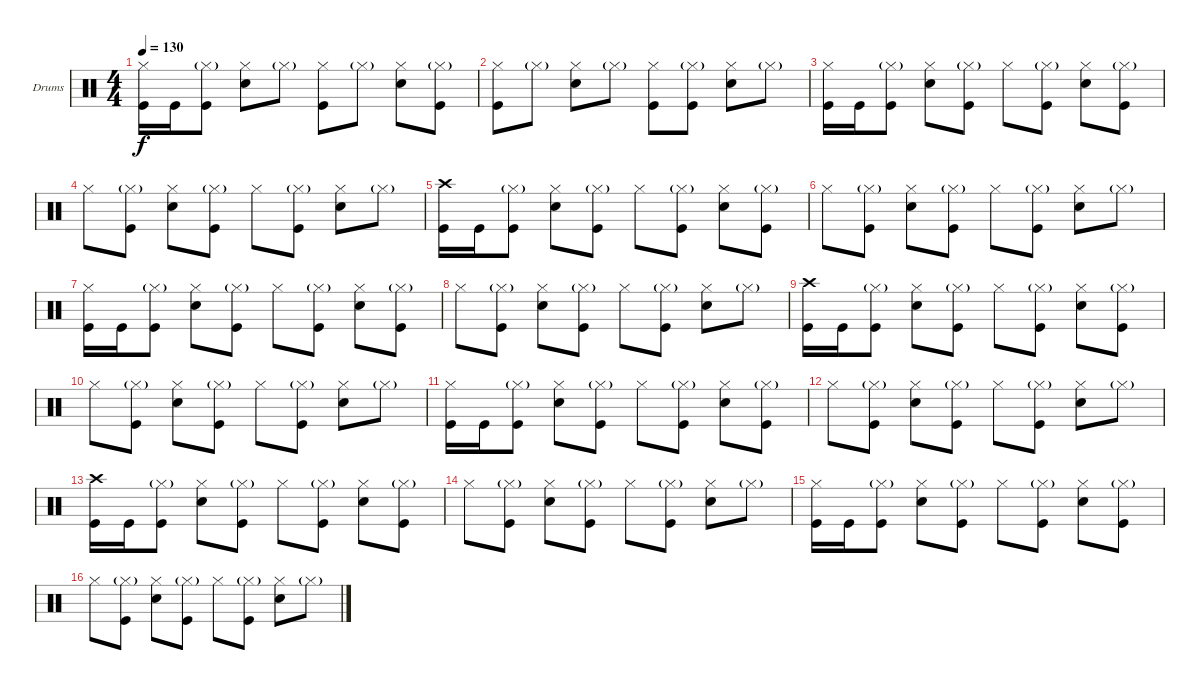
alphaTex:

\bracketExtendMode groupsimilarinstruments
\firstSystemTrackNameOrientation horizontal
\otherSystemsTrackNameOrientation horizontal
\track ("Drumkit" "Drums") {instrument percussion}
\staff {score}
\articulation defaults
\ts (4 4)
\tempo 130
\clef neutral
\ks c
("Kick (hit)" "Hi-Hat (closed)").16{dy f} "Kick (hit)".16 ("Kick (hit)" "Hi-Hat (closed)"{g}).8 ("Snare (hit) 2" "Hi-Hat (closed)").8 "Hi-Hat (closed)"{g}.8 ("Hi-Hat (closed)" "Kick (hit)").8 "Hi-Hat (closed)"{g}.8 ("Snare (hit) 2" "Hi-Hat (closed)").8 ("Hi-Hat (closed)"{g} "Kick (hit)").8 |
("Hi-Hat (closed)" "Kick (hit)").8 "Hi-Hat (closed)"{g}.8 ("Snare (hit) 2" "Hi-Hat (closed)").8 "Hi-Hat (closed)"{g}.8 ("Hi-Hat (closed)" "Kick (hit)").8 ("Kick (hit)" "Hi-Hat (closed)"{g}).8 ("Snare (hit) 2" "Hi-Hat (closed)").8 "Hi-Hat (closed)"{g}.8 |
("Kick (hit)" "Hi-Hat (closed)").16 "Kick (hit)".16 ("Kick (hit)" "Hi-Hat (closed)"{g}).8 ("Snare (hit) 2" "Hi-Hat (closed)").8 ("Kick (hit)" "Hi-Hat (closed)"{g}).8 "Hi-Hat (closed)".8 ("Kick (hit)" "Hi-Hat (closed)"{g}).8 ("Snare (hit) 2" "Hi-Hat (closed)").8 ("Kick (hit)" "Hi-Hat (closed)"{g}).8 |
"Hi-Hat (closed)".8 ("Kick (hit)" "Hi-Hat (closed)"{g}).8 ("Snare (hit) 2" "Hi-Hat (closed)").8 ("Kick (hit)" "Hi-Hat (closed)"{g}).8 "Hi-Hat (closed)".8 ("Kick (hit)" "Hi-Hat (closed)"{g}).8 ("Snare (hit) 2" "Hi-Hat (closed)").8 "Hi-Hat (closed)"{g}.8 |
("Crash high (hit)" "Kick (hit)").16 "Kick (hit)".16 ("Kick (hit)" "Hi-Hat (closed)"{g}).8 ("Snare (hit) 2" "Hi-Hat (closed)").8 ("Kick (hit)" "Hi-Hat (closed)"{g}).8 "Hi-Hat (closed)".8 ("Kick (hit)" "Hi-Hat (closed)"{g}).8 ("Snare (hit) 2" "Hi-Hat (closed)").8 ("Kick (hit)" "Hi-Hat (closed)"{g}).8 |
"Hi-Hat (closed)".8 ("Kick (hit)" "Hi-Hat (closed)"{g}).8 ("Snare (hit) 2" "Hi-Hat (closed)").8 ("Kick (hit)" "Hi-Hat (closed)"{g}).8 "Hi-Hat (closed)".8 ("Kick (hit)" "Hi-Hat (closed)"{g}).8 ("Snare (hit) 2" "Hi-Hat (closed)").8 "Hi-Hat (closed)"{g}.8 |
("Kick (hit)" "Hi-Hat (closed)").16 "Kick (hit)".16 ("Kick (hit)" "Hi-Hat (closed)"{g}).8 ("Snare (hit) 2" "Hi-Hat (closed)").8 ("Kick (hit)" "Hi-Hat (closed)"{g}).8 "Hi-Hat (closed)".8 ("Kick (hit)" "Hi-Hat (closed)"{g}).8 ("Snare (hit) 2" "Hi-Hat (closed)").8 ("Kick (hit)" "Hi-Hat (closed)"{g}).8 |
"Hi-Hat (closed)".8 ("Kick (hit)" "Hi-Hat (closed)"{g}).8 ("Snare (hit) 2" "Hi-Hat (closed)").8 ("Kick (hit)" "Hi-Hat (closed)"{g}).8 "Hi-Hat (closed)".8 ("Kick (hit)" "Hi-Hat (closed)"{g}).8 ("Snare (hit) 2" "Hi-Hat (closed)").8 "Hi-Hat (closed)"{g}.8 |
("Crash high (hit)" "Kick (hit)").16 "Kick (hit)".16 ("Kick (hit)" "Hi-Hat (closed)"{g}).8 ("Snare (hit) 2" "Hi-Hat (closed)").8 ("Kick (hit)" "Hi-Hat (closed)"{g}).8 "Hi-Hat (closed)".8 ("Kick (hit)" "Hi-Hat (closed)"{g}).8 ("Snare (hit) 2" "Hi-Hat (closed)").8 ("Kick (hit)" "Hi-Hat (closed)"{g}).8 |
"Hi-Hat (closed)".8 ("Kick (hit)" "Hi-Hat (closed)"{g}).8 ("Snare (hit) 2" "Hi-Hat (closed)").8 ("Kick (hit)" "Hi-Hat (closed)"{g}).8 "Hi-Hat (closed)".8 ("Kick (hit)" "Hi-Hat (closed)"{g}).8 ("Snare (hit) 2" "Hi-Hat (closed)").8 "Hi-Hat (closed)"{g}.8 |
("Kick (hit)" "Hi-Hat (closed)").16 "Kick (hit)".16 ("Kick (hit)" "Hi-Hat (closed)"{g}).8 ("Snare (hit) 2" "Hi-Hat (closed)").8 ("Kick (hit)" "Hi-Hat (closed)"{g}).8 "Hi-Hat (closed)".8 ("Kick (hit)" "Hi-Hat (closed)"{g}).8 ("Snare (hit) 2" "Hi-Hat (closed)").8 ("Kick (hit)" "Hi-Hat (closed)"{g}).8 |
"Hi-Hat (closed)".8 ("Kick (hit)" "Hi-Hat (closed)"{g}).8 ("Snare (hit) 2" "Hi-Hat (closed)").8 ("Kick (hit)" "Hi-Hat (closed)"{g}).8 "Hi-Hat (closed)".8 ("Kick (hit)" "Hi-Hat (closed)"{g}).8 ("Snare (hit) 2" "Hi-Hat (closed)").8 "Hi-Hat (closed)"{g}.8 |
("Crash high (hit)" "Kick (hit)").16 "Kick (hit)".16 ("Kick (hit)" "Hi-Hat (closed)"{g}).8 ("Snare (hit) 2" "Hi-Hat (closed)").8 ("Kick (hit)" "Hi-Hat (closed)"{g}).8 "Hi-Hat (closed)".8 ("Kick (hit)" "Hi-Hat (closed)"{g}).8 ("Snare (hit) 2" "Hi-Hat (closed)").8 ("Kick (hit)" "Hi-Hat (closed)"{g}).8 |
"Hi-Hat (closed)".8 ("Kick (hit)" "Hi-Hat (closed)"{g}).8 ("Snare (hit) 2" "Hi-Hat (closed)").8 ("Kick (hit)" "Hi-Hat (closed)"{g}).8 "Hi-Hat (closed)".8 ("Kick (hit)" "Hi-Hat (closed)"{g}).8 ("Snare (hit) 2" "Hi-Hat (closed)").8 "Hi-Hat (closed)"{g}.8 |
("Kick (hit)" "Hi-Hat (closed)").16 "Kick (hit)".16 ("Kick (hit)" "Hi-Hat (closed)"{g}).8 ("Snare (hit) 2" "Hi-Hat (closed)").8 ("Kick (hit)" "Hi-Hat (closed)"{g}).8 "Hi-Hat (closed)".8 ("Kick (hit)" "Hi-Hat (closed)"{g}).8 ("Snare (hit) 2" "Hi-Hat (closed)").8 ("Kick (hit)" "Hi-Hat (closed)"{g}).8 |
"Hi-Hat (closed)".8 ("Kick (hit)" "Hi-Hat (closed)"{g}).8 ("Snare (hit) 2" "Hi-Hat (closed)").8 ("Kick (hit)" "Hi-Hat (closed)"{g}).8 "Hi-Hat (closed)".8 ("Kick (hit)" "Hi-Hat (closed)"{g}).8 ("Snare (hit) 2" "Hi-Hat (closed)").8 "Hi-Hat (closed)"{g}.8
